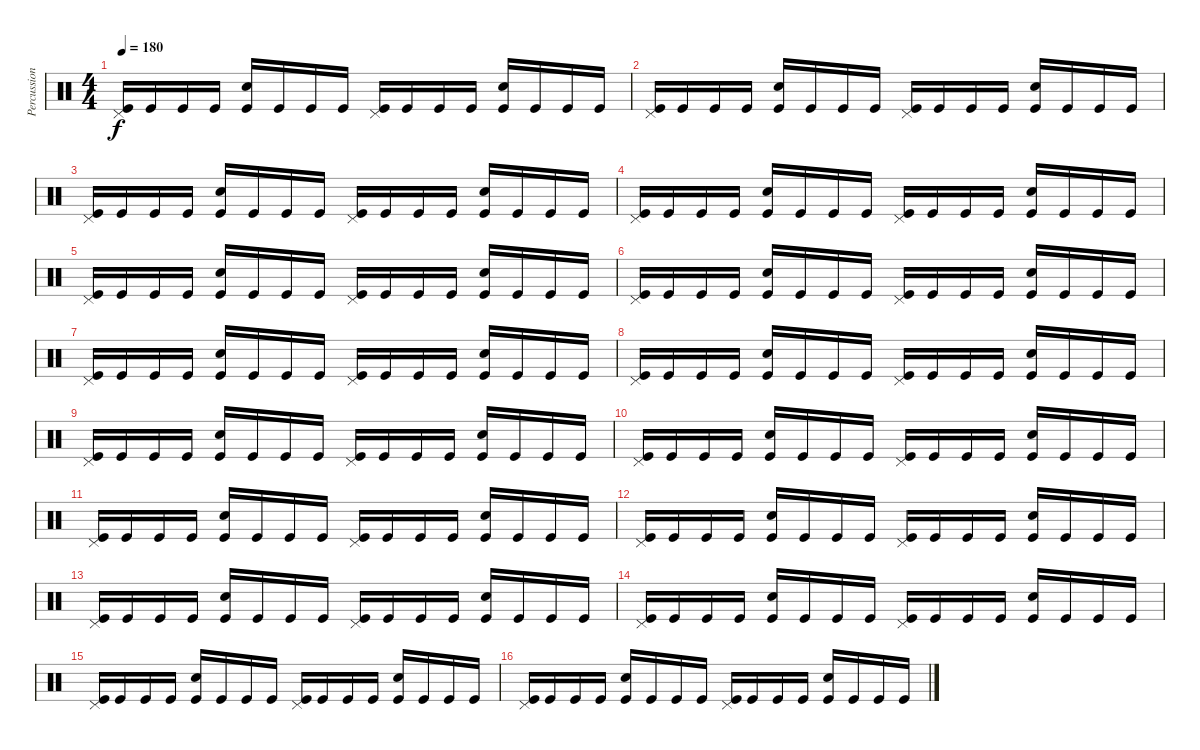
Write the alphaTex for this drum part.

\track ("Percussion" "Percussion") {instrument percussion}
\staff {score}
\articulation defaults
\ts (4 4)
\tempo 180
\clef neutral
\ks c
("Pedal Hi-Hat (hit)" "Kick (hit)").16{dy f} "Kick (hit)".16 "Kick (hit)".16 "Kick (hit)".16 ("Electric Snare (hit)" "Kick (hit)").16 "Kick (hit)".16 "Kick (hit)".16 "Kick (hit)".16 ("Pedal Hi-Hat (hit)" "Kick (hit)").16 "Kick (hit)".16 "Kick (hit)".16 "Kick (hit)".16 ("Electric Snare (hit)" "Kick (hit)").16 "Kick (hit)".16 "Kick (hit)".16 "Kick (hit)".16 |
("Pedal Hi-Hat (hit)" "Kick (hit)").16 "Kick (hit)".16 "Kick (hit)".16 "Kick (hit)".16 ("Electric Snare (hit)" "Kick (hit)").16 "Kick (hit)".16 "Kick (hit)".16 "Kick (hit)".16 ("Pedal Hi-Hat (hit)" "Kick (hit)").16 "Kick (hit)".16 "Kick (hit)".16 "Kick (hit)".16 ("Electric Snare (hit)" "Kick (hit)").16 "Kick (hit)".16 "Kick (hit)".16 "Kick (hit)".16 |
("Pedal Hi-Hat (hit)" "Kick (hit)").16 "Kick (hit)".16 "Kick (hit)".16 "Kick (hit)".16 ("Electric Snare (hit)" "Kick (hit)").16 "Kick (hit)".16 "Kick (hit)".16 "Kick (hit)".16 ("Pedal Hi-Hat (hit)" "Kick (hit)").16 "Kick (hit)".16 "Kick (hit)".16 "Kick (hit)".16 ("Electric Snare (hit)" "Kick (hit)").16 "Kick (hit)".16 "Kick (hit)".16 "Kick (hit)".16 |
("Pedal Hi-Hat (hit)" "Kick (hit)").16 "Kick (hit)".16 "Kick (hit)".16 "Kick (hit)".16 ("Electric Snare (hit)" "Kick (hit)").16 "Kick (hit)".16 "Kick (hit)".16 "Kick (hit)".16 ("Pedal Hi-Hat (hit)" "Kick (hit)").16 "Kick (hit)".16 "Kick (hit)".16 "Kick (hit)".16 ("Electric Snare (hit)" "Kick (hit)").16 "Kick (hit)".16 "Kick (hit)".16 "Kick (hit)".16 |
("Pedal Hi-Hat (hit)" "Kick (hit)").16 "Kick (hit)".16 "Kick (hit)".16 "Kick (hit)".16 ("Electric Snare (hit)" "Kick (hit)").16 "Kick (hit)".16 "Kick (hit)".16 "Kick (hit)".16 ("Pedal Hi-Hat (hit)" "Kick (hit)").16 "Kick (hit)".16 "Kick (hit)".16 "Kick (hit)".16 ("Electric Snare (hit)" "Kick (hit)").16 "Kick (hit)".16 "Kick (hit)".16 "Kick (hit)".16 |
("Pedal Hi-Hat (hit)" "Kick (hit)").16 "Kick (hit)".16 "Kick (hit)".16 "Kick (hit)".16 ("Electric Snare (hit)" "Kick (hit)").16 "Kick (hit)".16 "Kick (hit)".16 "Kick (hit)".16 ("Pedal Hi-Hat (hit)" "Kick (hit)").16 "Kick (hit)".16 "Kick (hit)".16 "Kick (hit)".16 ("Electric Snare (hit)" "Kick (hit)").16 "Kick (hit)".16 "Kick (hit)".16 "Kick (hit)".16 |
("Pedal Hi-Hat (hit)" "Kick (hit)").16 "Kick (hit)".16 "Kick (hit)".16 "Kick (hit)".16 ("Electric Snare (hit)" "Kick (hit)").16 "Kick (hit)".16 "Kick (hit)".16 "Kick (hit)".16 ("Pedal Hi-Hat (hit)" "Kick (hit)").16 "Kick (hit)".16 "Kick (hit)".16 "Kick (hit)".16 ("Electric Snare (hit)" "Kick (hit)").16 "Kick (hit)".16 "Kick (hit)".16 "Kick (hit)".16 |
("Pedal Hi-Hat (hit)" "Kick (hit)").16 "Kick (hit)".16 "Kick (hit)".16 "Kick (hit)".16 ("Electric Snare (hit)" "Kick (hit)").16 "Kick (hit)".16 "Kick (hit)".16 "Kick (hit)".16 ("Pedal Hi-Hat (hit)" "Kick (hit)").16 "Kick (hit)".16 "Kick (hit)".16 "Kick (hit)".16 ("Electric Snare (hit)" "Kick (hit)").16 "Kick (hit)".16 "Kick (hit)".16 "Kick (hit)".16 |
("Pedal Hi-Hat (hit)" "Kick (hit)").16 "Kick (hit)".16 "Kick (hit)".16 "Kick (hit)".16 ("Electric Snare (hit)" "Kick (hit)").16 "Kick (hit)".16 "Kick (hit)".16 "Kick (hit)".16 ("Pedal Hi-Hat (hit)" "Kick (hit)").16 "Kick (hit)".16 "Kick (hit)".16 "Kick (hit)".16 ("Electric Snare (hit)" "Kick (hit)").16 "Kick (hit)".16 "Kick (hit)".16 "Kick (hit)".16 |
("Pedal Hi-Hat (hit)" "Kick (hit)").16 "Kick (hit)".16 "Kick (hit)".16 "Kick (hit)".16 ("Electric Snare (hit)" "Kick (hit)").16 "Kick (hit)".16 "Kick (hit)".16 "Kick (hit)".16 ("Pedal Hi-Hat (hit)" "Kick (hit)").16 "Kick (hit)".16 "Kick (hit)".16 "Kick (hit)".16 ("Electric Snare (hit)" "Kick (hit)").16 "Kick (hit)".16 "Kick (hit)".16 "Kick (hit)".16 |
("Pedal Hi-Hat (hit)" "Kick (hit)").16 "Kick (hit)".16 "Kick (hit)".16 "Kick (hit)".16 ("Electric Snare (hit)" "Kick (hit)").16 "Kick (hit)".16 "Kick (hit)".16 "Kick (hit)".16 ("Pedal Hi-Hat (hit)" "Kick (hit)").16 "Kick (hit)".16 "Kick (hit)".16 "Kick (hit)".16 ("Electric Snare (hit)" "Kick (hit)").16 "Kick (hit)".16 "Kick (hit)".16 "Kick (hit)".16 |
("Pedal Hi-Hat (hit)" "Kick (hit)").16 "Kick (hit)".16 "Kick (hit)".16 "Kick (hit)".16 ("Electric Snare (hit)" "Kick (hit)").16 "Kick (hit)".16 "Kick (hit)".16 "Kick (hit)".16 ("Pedal Hi-Hat (hit)" "Kick (hit)").16 "Kick (hit)".16 "Kick (hit)".16 "Kick (hit)".16 ("Electric Snare (hit)" "Kick (hit)").16 "Kick (hit)".16 "Kick (hit)".16 "Kick (hit)".16 |
("Pedal Hi-Hat (hit)" "Kick (hit)").16 "Kick (hit)".16 "Kick (hit)".16 "Kick (hit)".16 ("Electric Snare (hit)" "Kick (hit)").16 "Kick (hit)".16 "Kick (hit)".16 "Kick (hit)".16 ("Pedal Hi-Hat (hit)" "Kick (hit)").16 "Kick (hit)".16 "Kick (hit)".16 "Kick (hit)".16 ("Electric Snare (hit)" "Kick (hit)").16 "Kick (hit)".16 "Kick (hit)".16 "Kick (hit)".16 |
("Pedal Hi-Hat (hit)" "Kick (hit)").16 "Kick (hit)".16 "Kick (hit)".16 "Kick (hit)".16 ("Electric Snare (hit)" "Kick (hit)").16 "Kick (hit)".16 "Kick (hit)".16 "Kick (hit)".16 ("Pedal Hi-Hat (hit)" "Kick (hit)").16 "Kick (hit)".16 "Kick (hit)".16 "Kick (hit)".16 ("Electric Snare (hit)" "Kick (hit)").16 "Kick (hit)".16 "Kick (hit)".16 "Kick (hit)".16 |
("Pedal Hi-Hat (hit)" "Kick (hit)").16 "Kick (hit)".16 "Kick (hit)".16 "Kick (hit)".16 ("Electric Snare (hit)" "Kick (hit)").16 "Kick (hit)".16 "Kick (hit)".16 "Kick (hit)".16 ("Pedal Hi-Hat (hit)" "Kick (hit)").16 "Kick (hit)".16 "Kick (hit)".16 "Kick (hit)".16 ("Electric Snare (hit)" "Kick (hit)").16 "Kick (hit)".16 "Kick (hit)".16 "Kick (hit)".16 |
("Pedal Hi-Hat (hit)" "Kick (hit)").16 "Kick (hit)".16 "Kick (hit)".16 "Kick (hit)".16 ("Electric Snare (hit)" "Kick (hit)").16 "Kick (hit)".16 "Kick (hit)".16 "Kick (hit)".16 ("Pedal Hi-Hat (hit)" "Kick (hit)").16 "Kick (hit)".16 "Kick (hit)".16 "Kick (hit)".16 ("Electric Snare (hit)" "Kick (hit)").16 "Kick (hit)".16 "Kick (hit)".16 "Kick (hit)".16
